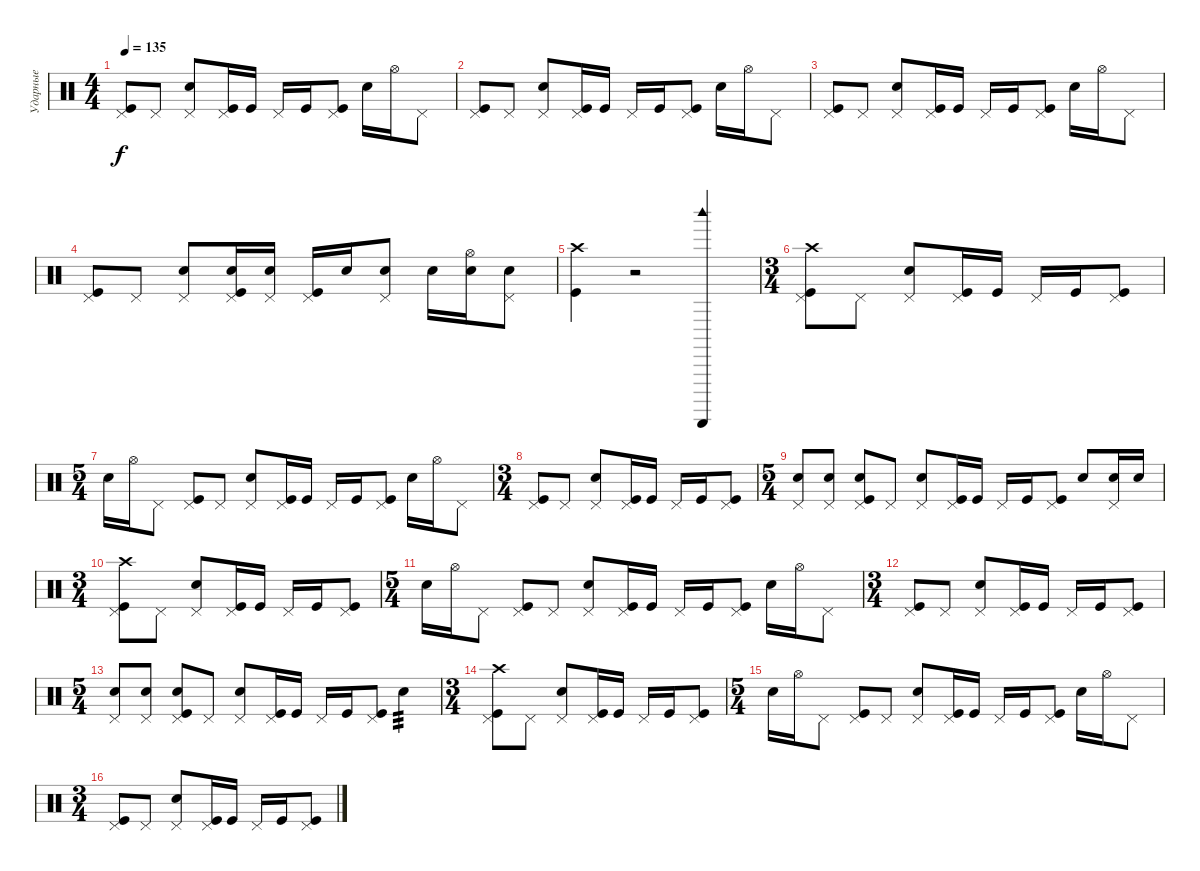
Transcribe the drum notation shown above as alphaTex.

\track ("Ударные" "Ударные") {instrument percussion}
\staff {score}
\articulation defaults
\ts (4 4)
\tempo 135
\clef neutral
\ks c
("Kick (hit)" "Pedal Hi-Hat (hit)").8{dy f} "Pedal Hi-Hat (hit)".8 ("Pedal Hi-Hat (hit)" "Electric Snare (hit)").8 ("Kick (hit)" "Pedal Hi-Hat (hit)").16 "Kick (hit)".16 "Pedal Hi-Hat (hit)".16 "Kick (hit)".16 ("Kick (hit)" "Pedal Hi-Hat (hit)").8 "Electric Snare (hit)".16 "Hi-Hat (open)".16 "Pedal Hi-Hat (hit)".8 |
("Kick (hit)" "Pedal Hi-Hat (hit)").8 "Pedal Hi-Hat (hit)".8 ("Pedal Hi-Hat (hit)" "Electric Snare (hit)").8 ("Kick (hit)" "Pedal Hi-Hat (hit)").16 "Kick (hit)".16 "Pedal Hi-Hat (hit)".16 "Kick (hit)".16 ("Kick (hit)" "Pedal Hi-Hat (hit)").8 "Electric Snare (hit)".16 "Hi-Hat (open)".16 "Pedal Hi-Hat (hit)".8 |
("Kick (hit)" "Pedal Hi-Hat (hit)").8 "Pedal Hi-Hat (hit)".8 ("Pedal Hi-Hat (hit)" "Electric Snare (hit)").8 ("Kick (hit)" "Pedal Hi-Hat (hit)").16 "Kick (hit)".16 "Pedal Hi-Hat (hit)".16 "Kick (hit)".16 ("Kick (hit)" "Pedal Hi-Hat (hit)").8 "Electric Snare (hit)".16 "Hi-Hat (open)".16 "Pedal Hi-Hat (hit)".8 |
("Kick (hit)" "Pedal Hi-Hat (hit)").8 "Pedal Hi-Hat (hit)".8 ("Pedal Hi-Hat (hit)" "Electric Snare (hit)").8 ("Kick (hit)" "Pedal Hi-Hat (hit)" "Electric Snare (hit)").16 ("Pedal Hi-Hat (hit)" "Electric Snare (hit)").16 ("Kick (hit)" "Pedal Hi-Hat (hit)").16 "Electric Snare (hit)".16 ("Pedal Hi-Hat (hit)" "Electric Snare (hit)").8 "Electric Snare (hit)".16 ("Hi-Hat (open)" "Electric Snare (hit)").16 ("Pedal Hi-Hat (hit)" "Electric Snare (hit)").8 |
("Kick (hit)" "Crash high (hit)").4 r.2 ("Woodblock high (hit)" "Guiro (scrap-return)").4 |
\ts (3 4)
("Kick (hit)" "Pedal Hi-Hat (hit)" "Crash high (hit)").8 "Pedal Hi-Hat (hit)".8 ("Pedal Hi-Hat (hit)" "Electric Snare (hit)").8 ("Kick (hit)" "Pedal Hi-Hat (hit)").16 "Kick (hit)".16 "Pedal Hi-Hat (hit)".16 "Kick (hit)".16 ("Kick (hit)" "Pedal Hi-Hat (hit)").8 |
\ts (5 4)
"Electric Snare (hit)".16 "Hi-Hat (open)".16 "Pedal Hi-Hat (hit)".8 ("Kick (hit)" "Pedal Hi-Hat (hit)").8 "Pedal Hi-Hat (hit)".8 ("Pedal Hi-Hat (hit)" "Electric Snare (hit)").8 ("Kick (hit)" "Pedal Hi-Hat (hit)").16 "Kick (hit)".16 "Pedal Hi-Hat (hit)".16 "Kick (hit)".16 ("Kick (hit)" "Pedal Hi-Hat (hit)").8 "Electric Snare (hit)".16 "Hi-Hat (open)".16 "Pedal Hi-Hat (hit)".8 |
\ts (3 4)
("Kick (hit)" "Pedal Hi-Hat (hit)").8 "Pedal Hi-Hat (hit)".8 ("Pedal Hi-Hat (hit)" "Electric Snare (hit)").8 ("Kick (hit)" "Pedal Hi-Hat (hit)").16 "Kick (hit)".16 "Pedal Hi-Hat (hit)".16 "Kick (hit)".16 ("Kick (hit)" "Pedal Hi-Hat (hit)").8 |
\ts (5 4)
("Pedal Hi-Hat (hit)" "Electric Snare (hit)").8 ("Pedal Hi-Hat (hit)" "Electric Snare (hit)").8 ("Kick (hit)" "Pedal Hi-Hat (hit)" "Electric Snare (hit)").8 "Pedal Hi-Hat (hit)".8 ("Pedal Hi-Hat (hit)" "Electric Snare (hit)").8 ("Kick (hit)" "Pedal Hi-Hat (hit)").16 "Kick (hit)".16 "Pedal Hi-Hat (hit)".16 "Kick (hit)".16 ("Kick (hit)" "Pedal Hi-Hat (hit)").8 "Electric Snare (hit)".8 ("Pedal Hi-Hat (hit)" "Electric Snare (hit)").16 "Electric Snare (hit)".16 |
\ts (3 4)
("Kick (hit)" "Pedal Hi-Hat (hit)" "Crash high (hit)").8 "Pedal Hi-Hat (hit)".8 ("Pedal Hi-Hat (hit)" "Electric Snare (hit)").8 ("Kick (hit)" "Pedal Hi-Hat (hit)").16 "Kick (hit)".16 "Pedal Hi-Hat (hit)".16 "Kick (hit)".16 ("Kick (hit)" "Pedal Hi-Hat (hit)").8 |
\ts (5 4)
"Electric Snare (hit)".16 "Hi-Hat (open)".16 "Pedal Hi-Hat (hit)".8 ("Kick (hit)" "Pedal Hi-Hat (hit)").8 "Pedal Hi-Hat (hit)".8 ("Pedal Hi-Hat (hit)" "Electric Snare (hit)").8 ("Kick (hit)" "Pedal Hi-Hat (hit)").16 "Kick (hit)".16 "Pedal Hi-Hat (hit)".16 "Kick (hit)".16 ("Kick (hit)" "Pedal Hi-Hat (hit)").8 "Electric Snare (hit)".16 "Hi-Hat (open)".16 "Pedal Hi-Hat (hit)".8 |
\ts (3 4)
("Kick (hit)" "Pedal Hi-Hat (hit)").8 "Pedal Hi-Hat (hit)".8 ("Pedal Hi-Hat (hit)" "Electric Snare (hit)").8 ("Kick (hit)" "Pedal Hi-Hat (hit)").16 "Kick (hit)".16 "Pedal Hi-Hat (hit)".16 "Kick (hit)".16 ("Kick (hit)" "Pedal Hi-Hat (hit)").8 |
\ts (5 4)
("Pedal Hi-Hat (hit)" "Electric Snare (hit)").8 ("Pedal Hi-Hat (hit)" "Electric Snare (hit)").8 ("Kick (hit)" "Pedal Hi-Hat (hit)" "Electric Snare (hit)").8 "Pedal Hi-Hat (hit)".8 ("Pedal Hi-Hat (hit)" "Electric Snare (hit)").8 ("Kick (hit)" "Pedal Hi-Hat (hit)").16 "Kick (hit)".16 "Pedal Hi-Hat (hit)".16 "Kick (hit)".16 ("Kick (hit)" "Pedal Hi-Hat (hit)").8 "Electric Snare (hit)".4{tp 3} |
\ts (3 4)
("Kick (hit)" "Pedal Hi-Hat (hit)" "Crash high (hit)").8 "Pedal Hi-Hat (hit)".8 ("Pedal Hi-Hat (hit)" "Electric Snare (hit)").8 ("Kick (hit)" "Pedal Hi-Hat (hit)").16 "Kick (hit)".16 "Pedal Hi-Hat (hit)".16 "Kick (hit)".16 ("Kick (hit)" "Pedal Hi-Hat (hit)").8 |
\ts (5 4)
"Electric Snare (hit)".16 "Hi-Hat (open)".16 "Pedal Hi-Hat (hit)".8 ("Kick (hit)" "Pedal Hi-Hat (hit)").8 "Pedal Hi-Hat (hit)".8 ("Pedal Hi-Hat (hit)" "Electric Snare (hit)").8 ("Kick (hit)" "Pedal Hi-Hat (hit)").16 "Kick (hit)".16 "Pedal Hi-Hat (hit)".16 "Kick (hit)".16 ("Kick (hit)" "Pedal Hi-Hat (hit)").8 "Electric Snare (hit)".16 "Hi-Hat (open)".16 "Pedal Hi-Hat (hit)".8 |
\ts (3 4)
("Kick (hit)" "Pedal Hi-Hat (hit)").8 "Pedal Hi-Hat (hit)".8 ("Pedal Hi-Hat (hit)" "Electric Snare (hit)").8 ("Kick (hit)" "Pedal Hi-Hat (hit)").16 "Kick (hit)".16 "Pedal Hi-Hat (hit)".16 "Kick (hit)".16 ("Kick (hit)" "Pedal Hi-Hat (hit)").8
